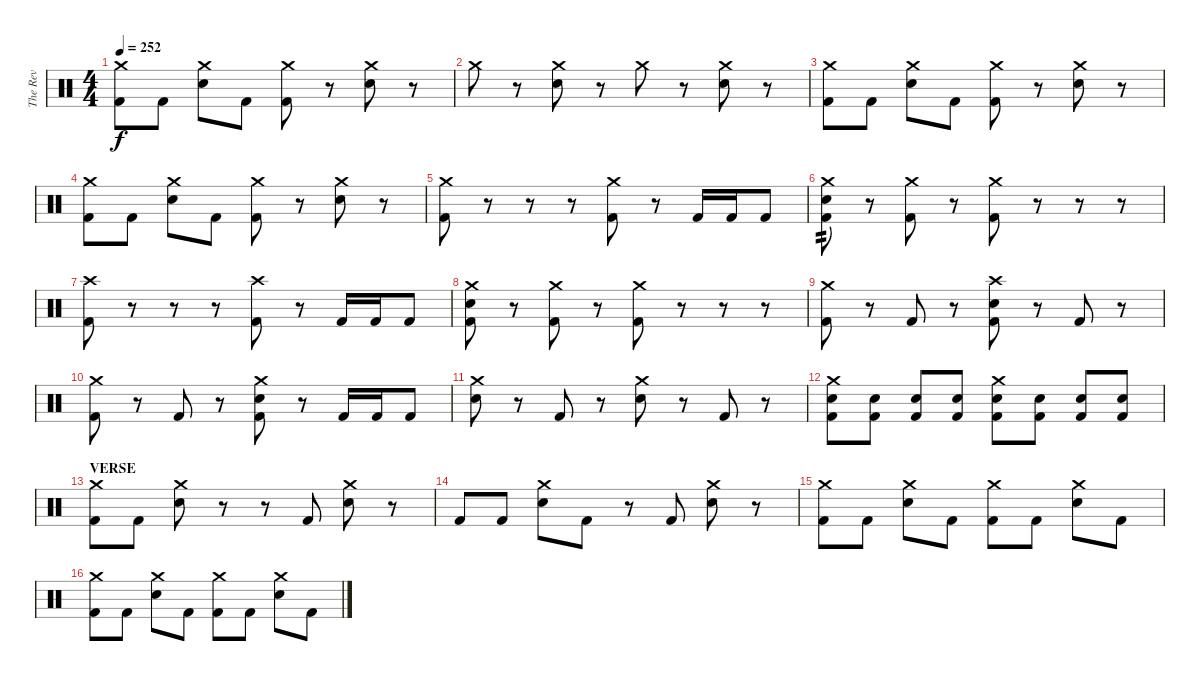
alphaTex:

\track ("The Rev" "The Rev") {instrument percussion}
\staff {score}
\articulation defaults
\ts (4 4)
\tempo 252
\clef neutral
\ks c
("Crash medium (hit)" "Kick (hit) 2").8{dy f} "Kick (hit) 2".8 ("Crash medium (hit)" "Electric Snare (hit)").8 "Kick (hit) 2".8 ("Crash medium (hit)" "Kick (hit) 2").8 r.8 ("Crash medium (hit)" "Electric Snare (hit)").8 r.8 |
"Crash medium (hit)".8 r.8 ("Crash medium (hit)" "Electric Snare (hit)").8 r.8 "Crash medium (hit)".8 r.8 ("Crash medium (hit)" "Electric Snare (hit)").8 r.8 |
("Crash medium (hit)" "Kick (hit) 2").8 "Kick (hit) 2".8 ("Crash medium (hit)" "Electric Snare (hit)").8 "Kick (hit) 2".8 ("Crash medium (hit)" "Kick (hit) 2").8 r.8 ("Crash medium (hit)" "Electric Snare (hit)").8 r.8 |
("Crash medium (hit)" "Kick (hit) 2").8 "Kick (hit) 2".8 ("Crash medium (hit)" "Electric Snare (hit)").8 "Kick (hit) 2".8 ("Crash medium (hit)" "Kick (hit) 2").8 r.8 ("Crash medium (hit)" "Electric Snare (hit)").8 r.8 |
("Crash medium (hit)" "Kick (hit) 2").8 r.8 r.8 r.8 ("Crash medium (hit)" "Kick (hit) 2").8 r.8 "Kick (hit) 2".16 "Kick (hit) 2".16 "Kick (hit) 2".8 |
("Crash medium (hit)" "Electric Snare (hit)" "Kick (hit) 2").8{tp 2} r.8 ("Crash medium (hit)" "Kick (hit) 2").8 r.8 ("Crash medium (hit)" "Kick (hit) 2").8 r.8 r.8 r.8 |
("Crash high (hit)" "Kick (hit) 2").8 r.8 r.8 r.8 ("Crash high (hit)" "Kick (hit) 2").8 r.8 "Kick (hit) 2".16 "Kick (hit) 2".16 "Kick (hit) 2".8 |
("Crash medium (hit)" "Electric Snare (hit)" "Kick (hit) 2").8 r.8 ("Crash medium (hit)" "Kick (hit) 2").8 r.8 ("Crash medium (hit)" "Kick (hit) 2").8 r.8 r.8 r.8 |
("Crash medium (hit)" "Kick (hit) 2").8 r.8 "Kick (hit) 2".8 r.8 ("Crash high (hit)" "Electric Snare (hit)" "Kick (hit) 2").8 r.8 "Kick (hit) 2".8 r.8 |
("Crash medium (hit)" "Kick (hit) 2").8 r.8 "Kick (hit) 2".8 r.8 ("Crash medium (hit)" "Electric Snare (hit)" "Kick (hit) 2").8 r.8 "Kick (hit) 2".16 "Kick (hit) 2".16 "Kick (hit) 2".8 |
("Crash medium (hit)" "Electric Snare (hit)").8 r.8 "Kick (hit) 2".8 r.8 ("Crash medium (hit)" "Electric Snare (hit)").8 r.8 "Kick (hit) 2".8 r.8 |
("Crash medium (hit)" "Electric Snare (hit)" "Kick (hit) 2").8 ("Electric Snare (hit)" "Kick (hit) 2").8 ("Electric Snare (hit)" "Kick (hit) 2").8 ("Electric Snare (hit)" "Kick (hit) 2").8 ("Crash medium (hit)" "Electric Snare (hit)" "Kick (hit) 2").8 ("Electric Snare (hit)" "Kick (hit) 2").8 ("Electric Snare (hit)" "Kick (hit) 2").8 ("Electric Snare (hit)" "Kick (hit) 2").8 |
\section ("" "VERSE")
("Crash medium (hit)" "Kick (hit) 2").8 "Kick (hit) 2".8 ("Crash medium (hit)" "Electric Snare (hit)").8 r.8 r.8 "Kick (hit) 2".8 ("Crash medium (hit)" "Electric Snare (hit)").8 r.8 |
"Kick (hit) 2".8 "Kick (hit) 2".8 ("Crash medium (hit)" "Electric Snare (hit)").8 "Kick (hit) 2".8 r.8 "Kick (hit) 2".8 ("Crash medium (hit)" "Electric Snare (hit)").8 r.8 |
("Crash medium (hit)" "Kick (hit) 2").8 "Kick (hit) 2".8 ("Crash medium (hit)" "Electric Snare (hit)").8 "Kick (hit) 2".8 ("Crash medium (hit)" "Kick (hit) 2").8 "Kick (hit) 2".8 ("Crash medium (hit)" "Electric Snare (hit)").8 "Kick (hit) 2".8 |
("Crash medium (hit)" "Kick (hit) 2").8 "Kick (hit) 2".8 ("Crash medium (hit)" "Electric Snare (hit)").8 "Kick (hit) 2".8 ("Crash medium (hit)" "Kick (hit) 2").8 "Kick (hit) 2".8 ("Crash medium (hit)" "Electric Snare (hit)").8 "Kick (hit) 2".8
